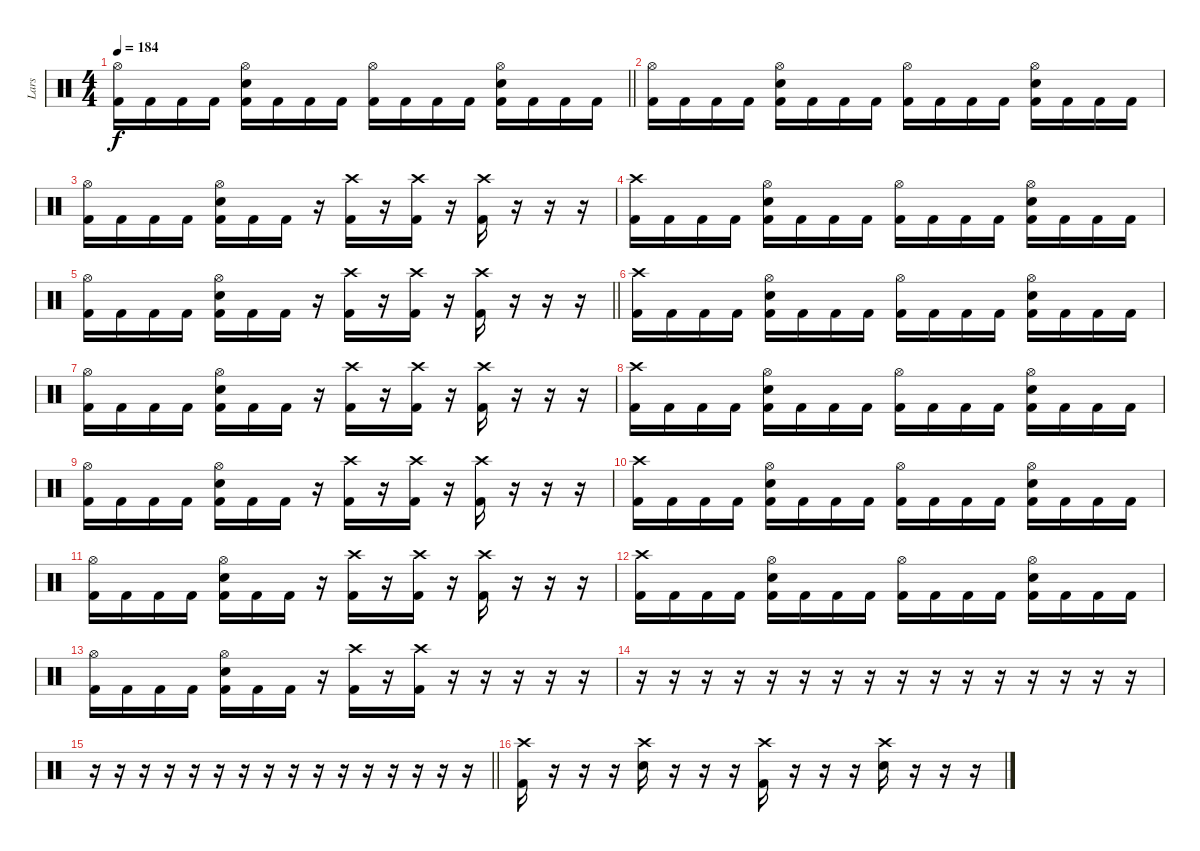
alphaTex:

\track ("Lars" "Lars") {instrument percussion}
\staff {score}
\articulation defaults
\ts (4 4)
\tempo 184
\clef neutral
\barLineRight lightlight
\ks c
("Hi-Hat (open)" "Kick (hit) 2").16{dy f} "Kick (hit) 2".16 "Kick (hit) 2".16 "Kick (hit) 2".16 ("Electric Snare (hit)" "Hi-Hat (open)" "Kick (hit) 2").16 "Kick (hit) 2".16 "Kick (hit) 2".16 "Kick (hit) 2".16 ("Hi-Hat (open)" "Kick (hit) 2").16 "Kick (hit) 2".16 "Kick (hit) 2".16 "Kick (hit) 2".16 ("Electric Snare (hit)" "Hi-Hat (open)" "Kick (hit) 2").16 "Kick (hit) 2".16 "Kick (hit) 2".16 "Kick (hit) 2".16 |
("Hi-Hat (open)" "Kick (hit) 2").16 "Kick (hit) 2".16 "Kick (hit) 2".16 "Kick (hit) 2".16 ("Electric Snare (hit)" "Hi-Hat (open)" "Kick (hit) 2").16 "Kick (hit) 2".16 "Kick (hit) 2".16 "Kick (hit) 2".16 ("Hi-Hat (open)" "Kick (hit) 2").16 "Kick (hit) 2".16 "Kick (hit) 2".16 "Kick (hit) 2".16 ("Electric Snare (hit)" "Hi-Hat (open)" "Kick (hit) 2").16 "Kick (hit) 2".16 "Kick (hit) 2".16 "Kick (hit) 2".16 |
("Hi-Hat (open)" "Kick (hit) 2").16 "Kick (hit) 2".16 "Kick (hit) 2".16 "Kick (hit) 2".16 ("Electric Snare (hit)" "Hi-Hat (open)" "Kick (hit) 2").16 "Kick (hit) 2".16 "Kick (hit) 2".16 r.16 ("Crash high (hit)" "Kick (hit) 2").16 r.16 ("Crash high (hit)" "Kick (hit) 2").16 r.16 ("Crash high (hit)" "Kick (hit) 2").16 r.16 r.16 r.16 |
("Crash high (hit)" "Kick (hit) 2").16 "Kick (hit) 2".16 "Kick (hit) 2".16 "Kick (hit) 2".16 ("Electric Snare (hit)" "Hi-Hat (open)" "Kick (hit) 2").16 "Kick (hit) 2".16 "Kick (hit) 2".16 "Kick (hit) 2".16 ("Hi-Hat (open)" "Kick (hit) 2").16 "Kick (hit) 2".16 "Kick (hit) 2".16 "Kick (hit) 2".16 ("Electric Snare (hit)" "Hi-Hat (open)" "Kick (hit) 2").16 "Kick (hit) 2".16 "Kick (hit) 2".16 "Kick (hit) 2".16 |
\barLineRight lightlight
("Hi-Hat (open)" "Kick (hit) 2").16 "Kick (hit) 2".16 "Kick (hit) 2".16 "Kick (hit) 2".16 ("Electric Snare (hit)" "Hi-Hat (open)" "Kick (hit) 2").16 "Kick (hit) 2".16 "Kick (hit) 2".16 r.16 ("Crash high (hit)" "Kick (hit) 2").16 r.16 ("Crash high (hit)" "Kick (hit) 2").16 r.16 ("Crash high (hit)" "Kick (hit) 2").16 r.16 r.16 r.16 |
("Crash high (hit)" "Kick (hit) 2").16 "Kick (hit) 2".16 "Kick (hit) 2".16 "Kick (hit) 2".16 ("Electric Snare (hit)" "Hi-Hat (open)" "Kick (hit) 2").16 "Kick (hit) 2".16 "Kick (hit) 2".16 "Kick (hit) 2".16 ("Hi-Hat (open)" "Kick (hit) 2").16 "Kick (hit) 2".16 "Kick (hit) 2".16 "Kick (hit) 2".16 ("Electric Snare (hit)" "Hi-Hat (open)" "Kick (hit) 2").16 "Kick (hit) 2".16 "Kick (hit) 2".16 "Kick (hit) 2".16 |
("Hi-Hat (open)" "Kick (hit) 2").16 "Kick (hit) 2".16 "Kick (hit) 2".16 "Kick (hit) 2".16 ("Electric Snare (hit)" "Hi-Hat (open)" "Kick (hit) 2").16 "Kick (hit) 2".16 "Kick (hit) 2".16 r.16 ("Crash high (hit)" "Kick (hit) 2").16 r.16 ("Crash high (hit)" "Kick (hit) 2").16 r.16 ("Crash high (hit)" "Kick (hit) 2").16 r.16 r.16 r.16 |
("Crash high (hit)" "Kick (hit) 2").16 "Kick (hit) 2".16 "Kick (hit) 2".16 "Kick (hit) 2".16 ("Electric Snare (hit)" "Hi-Hat (open)" "Kick (hit) 2").16 "Kick (hit) 2".16 "Kick (hit) 2".16 "Kick (hit) 2".16 ("Hi-Hat (open)" "Kick (hit) 2").16 "Kick (hit) 2".16 "Kick (hit) 2".16 "Kick (hit) 2".16 ("Electric Snare (hit)" "Hi-Hat (open)" "Kick (hit) 2").16 "Kick (hit) 2".16 "Kick (hit) 2".16 "Kick (hit) 2".16 |
("Hi-Hat (open)" "Kick (hit) 2").16 "Kick (hit) 2".16 "Kick (hit) 2".16 "Kick (hit) 2".16 ("Electric Snare (hit)" "Hi-Hat (open)" "Kick (hit) 2").16 "Kick (hit) 2".16 "Kick (hit) 2".16 r.16 ("Crash high (hit)" "Kick (hit) 2").16 r.16 ("Crash high (hit)" "Kick (hit) 2").16 r.16 ("Crash high (hit)" "Kick (hit) 2").16 r.16 r.16 r.16 |
("Crash high (hit)" "Kick (hit) 2").16 "Kick (hit) 2".16 "Kick (hit) 2".16 "Kick (hit) 2".16 ("Electric Snare (hit)" "Hi-Hat (open)" "Kick (hit) 2").16 "Kick (hit) 2".16 "Kick (hit) 2".16 "Kick (hit) 2".16 ("Hi-Hat (open)" "Kick (hit) 2").16 "Kick (hit) 2".16 "Kick (hit) 2".16 "Kick (hit) 2".16 ("Electric Snare (hit)" "Hi-Hat (open)" "Kick (hit) 2").16 "Kick (hit) 2".16 "Kick (hit) 2".16 "Kick (hit) 2".16 |
("Hi-Hat (open)" "Kick (hit) 2").16 "Kick (hit) 2".16 "Kick (hit) 2".16 "Kick (hit) 2".16 ("Electric Snare (hit)" "Hi-Hat (open)" "Kick (hit) 2").16 "Kick (hit) 2".16 "Kick (hit) 2".16 r.16 ("Crash high (hit)" "Kick (hit) 2").16 r.16 ("Crash high (hit)" "Kick (hit) 2").16 r.16 ("Crash high (hit)" "Kick (hit) 2").16 r.16 r.16 r.16 |
("Crash high (hit)" "Kick (hit) 2").16 "Kick (hit) 2".16 "Kick (hit) 2".16 "Kick (hit) 2".16 ("Electric Snare (hit)" "Hi-Hat (open)" "Kick (hit) 2").16 "Kick (hit) 2".16 "Kick (hit) 2".16 "Kick (hit) 2".16 ("Hi-Hat (open)" "Kick (hit) 2").16 "Kick (hit) 2".16 "Kick (hit) 2".16 "Kick (hit) 2".16 ("Electric Snare (hit)" "Hi-Hat (open)" "Kick (hit) 2").16 "Kick (hit) 2".16 "Kick (hit) 2".16 "Kick (hit) 2".16 |
("Hi-Hat (open)" "Kick (hit) 2").16 "Kick (hit) 2".16 "Kick (hit) 2".16 "Kick (hit) 2".16 ("Electric Snare (hit)" "Hi-Hat (open)" "Kick (hit) 2").16 "Kick (hit) 2".16 "Kick (hit) 2".16 r.16 ("Crash high (hit)" "Kick (hit) 2").16 r.16 ("Crash high (hit)" "Kick (hit) 2").16 r.16 r.16 r.16{volume 0} r.16 r.16 |
r.16 r.16 r.16 r.16 r.16 r.16 r.16 r.16 r.16 r.16 r.16 r.16 r.16 r.16 r.16 r.16 |
\barLineRight lightlight
r.16 r.16 r.16 r.16 r.16 r.16 r.16 r.16 r.16 r.16 r.16 r.16 r.16 r.16 r.16 r.16 |
("Crash high (hit)" "Kick (hit) 2").16{volume 10} r.16 r.16 r.16 ("Crash high (hit)" "Electric Snare (hit)").16 r.16 r.16 r.16 ("Crash high (hit)" "Kick (hit) 2").16 r.16 r.16 r.16 ("Crash high (hit)" "Electric Snare (hit)").16 r.16 r.16 r.16
